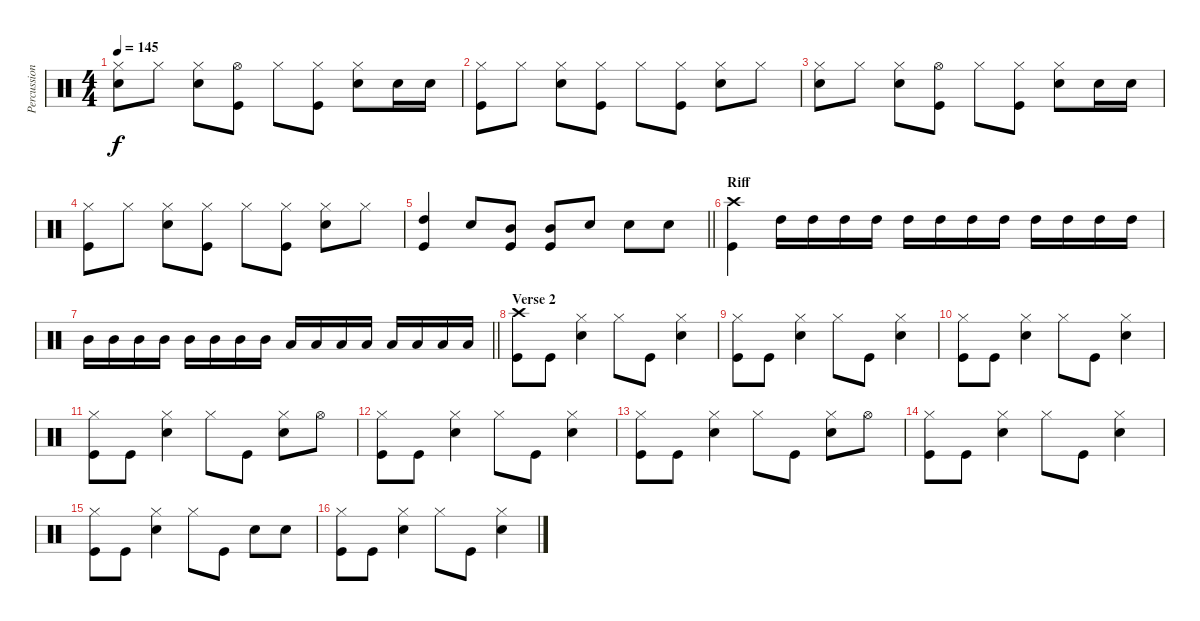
\track ("Percussion" "Percussion") {instrument percussion}
\staff {score}
\articulation defaults
\ts (4 4)
\tempo 145
\clef neutral
\ks c
("Hi-Hat (closed)" "Snare (hit) 2").8{dy f} "Hi-Hat (closed)".8 ("Hi-Hat (closed)" "Snare (hit) 2").8 ("Kick (hit)" "Hi-Hat (open)").8 "Hi-Hat (closed)".8 ("Kick (hit)" "Hi-Hat (closed)").8 ("Hi-Hat (closed)" "Snare (hit) 2").8 "Snare (hit) 2".16 "Snare (hit) 2".16 |
("Kick (hit)" "Hi-Hat (closed)").8 "Hi-Hat (closed)".8 ("Hi-Hat (closed)" "Snare (hit) 2").8 ("Kick (hit)" "Hi-Hat (closed)").8 "Hi-Hat (closed)".8 ("Kick (hit)" "Hi-Hat (closed)").8 ("Hi-Hat (closed)" "Snare (hit) 2").8 "Hi-Hat (closed)".8 |
("Hi-Hat (closed)" "Snare (hit) 2").8 "Hi-Hat (closed)".8 ("Hi-Hat (closed)" "Snare (hit) 2").8 ("Kick (hit)" "Hi-Hat (open)").8 "Hi-Hat (closed)".8 ("Kick (hit)" "Hi-Hat (closed)").8 ("Hi-Hat (closed)" "Snare (hit) 2").8 "Snare (hit) 2".16 "Snare (hit) 2".16 |
("Kick (hit)" "Hi-Hat (closed)").8 "Hi-Hat (closed)".8 ("Hi-Hat (closed)" "Snare (hit) 2").8 ("Kick (hit)" "Hi-Hat (closed)").8 "Hi-Hat (closed)".8 ("Kick (hit)" "Hi-Hat (closed)").8 ("Hi-Hat (closed)" "Snare (hit) 2").8 "Hi-Hat (closed)".8 |
\barLineRight lightlight
("Kick (hit)" "High Tom (hit)").4 "Snare (hit) 2".8 ("Kick (hit)" "Mid Tom (hit)").8 ("Kick (hit)" "Mid Tom (hit)").8 "Snare (hit) 2".8 "Snare (hit) 2".8 "Snare (hit) 2".8 |
\section ("" "Riff")
("Kick (hit)" "Crash high (hit)").4 "High Tom (hit)".16 "High Tom (hit)".16 "High Tom (hit)".16 "High Tom (hit)".16 "High Tom (hit)".16 "High Tom (hit)".16 "High Tom (hit)".16 "High Tom (hit)".16 "High Tom (hit)".16 "High Tom (hit)".16 "High Tom (hit)".16 "High Tom (hit)".16 |
\barLineRight lightlight "Mid Tom (hit)".16 "Mid Tom (hit)".16 "Mid Tom (hit)".16 "Mid Tom (hit)".16 "Mid Tom (hit)".16 "Mid Tom (hit)".16 "Mid Tom (hit)".16 "Mid Tom (hit)".16 "Low Tom (hit)".16 "Low Tom (hit)".16 "Low Tom (hit)".16 "Low Tom (hit)".16 "Low Tom (hit)".16 "Low Tom (hit)".16 "Low Tom (hit)".16 "Low Tom (hit)".16
|
\section ("" "Verse 2")
("Kick (hit)" "Crash high (hit)").8 "Kick (hit)".8 ("Hi-Hat (closed)" "Snare (hit) 2").4 "Hi-Hat (closed)".8 "Kick (hit)".8 ("Hi-Hat (closed)" "Snare (hit) 2").4 |
("Kick (hit)" "Hi-Hat (closed)").8 "Kick (hit)".8 ("Hi-Hat (closed)" "Snare (hit) 2").4 "Hi-Hat (closed)".8 "Kick (hit)".8 ("Hi-Hat (closed)" "Snare (hit) 2").4 |
("Kick (hit)" "Hi-Hat (closed)").8 "Kick (hit)".8 ("Hi-Hat (closed)" "Snare (hit) 2").4 "Hi-Hat (closed)".8 "Kick (hit)".8 ("Hi-Hat (closed)" "Snare (hit) 2").4 |
("Kick (hit)" "Hi-Hat (closed)").8 "Kick (hit)".8 ("Hi-Hat (closed)" "Snare (hit) 2").4 "Hi-Hat (closed)".8 "Kick (hit)".8 ("Hi-Hat (closed)" "Snare (hit) 2").8 "Hi-Hat (open)".8 |
("Kick (hit)" "Hi-Hat (closed)").8 "Kick (hit)".8 ("Hi-Hat (closed)" "Snare (hit) 2").4 "Hi-Hat (closed)".8 "Kick (hit)".8 ("Hi-Hat (closed)" "Snare (hit) 2").4 |
("Kick (hit)" "Hi-Hat (closed)").8 "Kick (hit)".8 ("Hi-Hat (closed)" "Snare (hit) 2").4 "Hi-Hat (closed)".8 "Kick (hit)".8 ("Hi-Hat (closed)" "Snare (hit) 2").8 "Hi-Hat (open)".8 |
("Kick (hit)" "Hi-Hat (closed)").8 "Kick (hit)".8 ("Hi-Hat (closed)" "Snare (hit) 2").4 "Hi-Hat (closed)".8 "Kick (hit)".8 ("Hi-Hat (closed)" "Snare (hit) 2").4 |
("Kick (hit)" "Hi-Hat (closed)").8 "Kick (hit)".8 ("Hi-Hat (closed)" "Snare (hit) 2").4 "Hi-Hat (closed)".8 "Kick (hit)".8 "Snare (hit) 2".8 "Snare (hit) 2".8 |
("Kick (hit)" "Hi-Hat (closed)").8 "Kick (hit)".8 ("Hi-Hat (closed)" "Snare (hit) 2").4 "Hi-Hat (closed)".8 "Kick (hit)".8 ("Hi-Hat (closed)" "Snare (hit) 2").4
